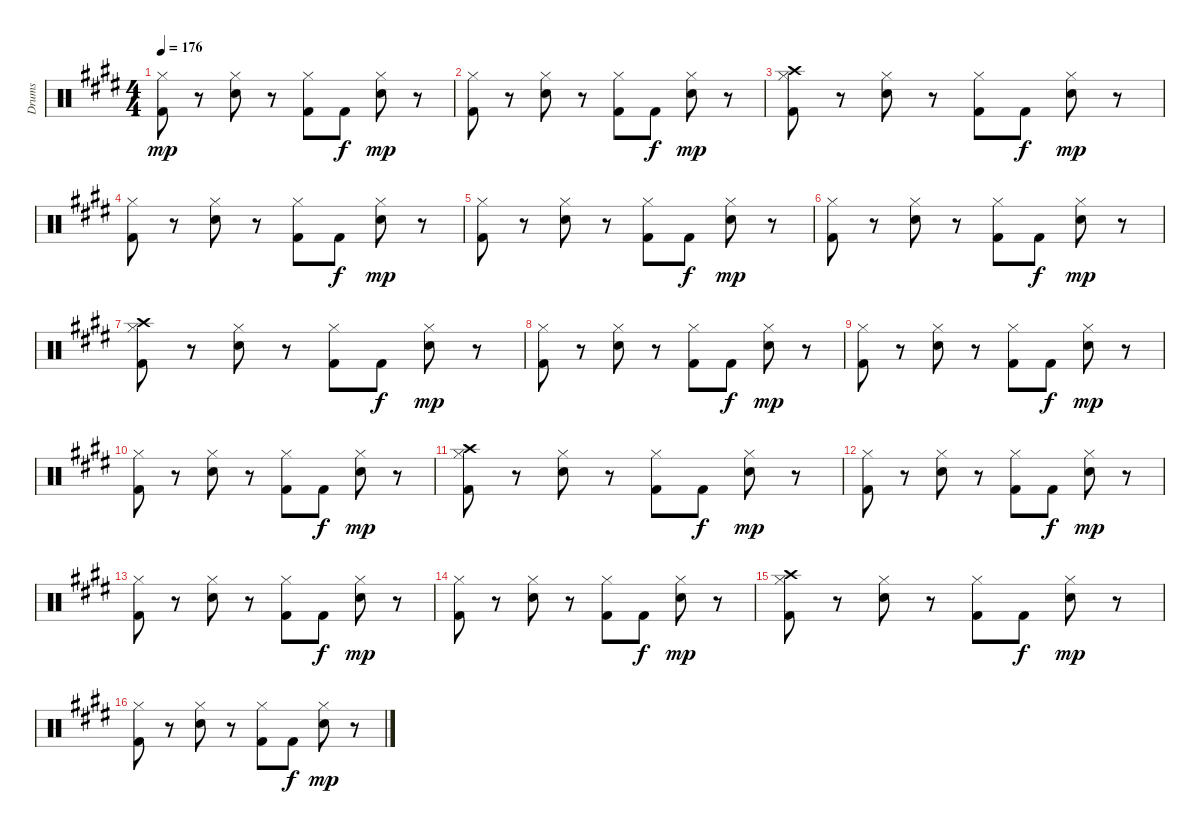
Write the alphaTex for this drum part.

\track ("Drums" "Drums") {instrument percussion}
\staff {score}
\articulation defaults
\ts (4 4)
\tempo 176
\clef neutral
\ks e
("Hi-Hat (closed)" "Kick (hit) 2").8{dy mp} r.8 ("Hi-Hat (closed)" "Snare (hit) 2").8 r.8 ("Hi-Hat (closed)" "Kick (hit) 2").8 "Kick (hit) 2".8{dy f} ("Hi-Hat (closed)" "Snare (hit) 2").8{dy mp} r.8 |
("Hi-Hat (closed)" "Kick (hit) 2").8 r.8 ("Hi-Hat (closed)" "Snare (hit) 2").8 r.8 ("Hi-Hat (closed)" "Kick (hit) 2").8 "Kick (hit) 2".8{dy f} ("Hi-Hat (closed)" "Snare (hit) 2").8{dy mp} r.8 |
("Crash high (hit)" "Hi-Hat (closed)" "Kick (hit) 2").8 r.8 ("Hi-Hat (closed)" "Snare (hit) 2").8 r.8 ("Hi-Hat (closed)" "Kick (hit) 2").8 "Kick (hit) 2".8{dy f} ("Hi-Hat (closed)" "Snare (hit) 2").8{dy mp} r.8 |
("Hi-Hat (closed)" "Kick (hit) 2").8 r.8 ("Hi-Hat (closed)" "Snare (hit) 2").8 r.8 ("Hi-Hat (closed)" "Kick (hit) 2").8 "Kick (hit) 2".8{dy f} ("Hi-Hat (closed)" "Snare (hit) 2").8{dy mp} r.8 |
("Hi-Hat (closed)" "Kick (hit) 2").8 r.8 ("Hi-Hat (closed)" "Snare (hit) 2").8 r.8 ("Hi-Hat (closed)" "Kick (hit) 2").8 "Kick (hit) 2".8{dy f} ("Hi-Hat (closed)" "Snare (hit) 2").8{dy mp} r.8 |
("Hi-Hat (closed)" "Kick (hit) 2").8 r.8 ("Hi-Hat (closed)" "Snare (hit) 2").8 r.8 ("Hi-Hat (closed)" "Kick (hit) 2").8 "Kick (hit) 2".8{dy f} ("Hi-Hat (closed)" "Snare (hit) 2").8{dy mp} r.8 |
("Crash high (hit)" "Hi-Hat (closed)" "Kick (hit) 2").8 r.8 ("Hi-Hat (closed)" "Snare (hit) 2").8 r.8 ("Hi-Hat (closed)" "Kick (hit) 2").8 "Kick (hit) 2".8{dy f} ("Hi-Hat (closed)" "Snare (hit) 2").8{dy mp} r.8 |
("Hi-Hat (closed)" "Kick (hit) 2").8 r.8 ("Hi-Hat (closed)" "Snare (hit) 2").8 r.8 ("Hi-Hat (closed)" "Kick (hit) 2").8 "Kick (hit) 2".8{dy f} ("Hi-Hat (closed)" "Snare (hit) 2").8{dy mp} r.8 |
("Hi-Hat (closed)" "Kick (hit) 2").8 r.8 ("Hi-Hat (closed)" "Snare (hit) 2").8 r.8 ("Hi-Hat (closed)" "Kick (hit) 2").8 "Kick (hit) 2".8{dy f} ("Hi-Hat (closed)" "Snare (hit) 2").8{dy mp} r.8 |
("Hi-Hat (closed)" "Kick (hit) 2").8 r.8 ("Hi-Hat (closed)" "Snare (hit) 2").8 r.8 ("Hi-Hat (closed)" "Kick (hit) 2").8 "Kick (hit) 2".8{dy f} ("Hi-Hat (closed)" "Snare (hit) 2").8{dy mp} r.8 |
("Crash high (hit)" "Hi-Hat (closed)" "Kick (hit) 2").8 r.8 ("Hi-Hat (closed)" "Snare (hit) 2").8 r.8 ("Hi-Hat (closed)" "Kick (hit) 2").8 "Kick (hit) 2".8{dy f} ("Hi-Hat (closed)" "Snare (hit) 2").8{dy mp} r.8 |
("Hi-Hat (closed)" "Kick (hit) 2").8 r.8 ("Hi-Hat (closed)" "Snare (hit) 2").8 r.8 ("Hi-Hat (closed)" "Kick (hit) 2").8 "Kick (hit) 2".8{dy f} ("Hi-Hat (closed)" "Snare (hit) 2").8{dy mp} r.8 |
("Hi-Hat (closed)" "Kick (hit) 2").8 r.8 ("Hi-Hat (closed)" "Snare (hit) 2").8 r.8 ("Hi-Hat (closed)" "Kick (hit) 2").8 "Kick (hit) 2".8{dy f} ("Hi-Hat (closed)" "Snare (hit) 2").8{dy mp} r.8 |
("Hi-Hat (closed)" "Kick (hit) 2").8 r.8 ("Hi-Hat (closed)" "Snare (hit) 2").8 r.8 ("Hi-Hat (closed)" "Kick (hit) 2").8 "Kick (hit) 2".8{dy f} ("Hi-Hat (closed)" "Snare (hit) 2").8{dy mp} r.8 |
("Crash high (hit)" "Hi-Hat (closed)" "Kick (hit) 2").8 r.8 ("Hi-Hat (closed)" "Snare (hit) 2").8 r.8 ("Hi-Hat (closed)" "Kick (hit) 2").8 "Kick (hit) 2".8{dy f} ("Hi-Hat (closed)" "Snare (hit) 2").8{dy mp} r.8 |
("Hi-Hat (closed)" "Kick (hit) 2").8 r.8 ("Hi-Hat (closed)" "Snare (hit) 2").8 r.8 ("Hi-Hat (closed)" "Kick (hit) 2").8 "Kick (hit) 2".8{dy f} ("Hi-Hat (closed)" "Snare (hit) 2").8{dy mp} r.8
